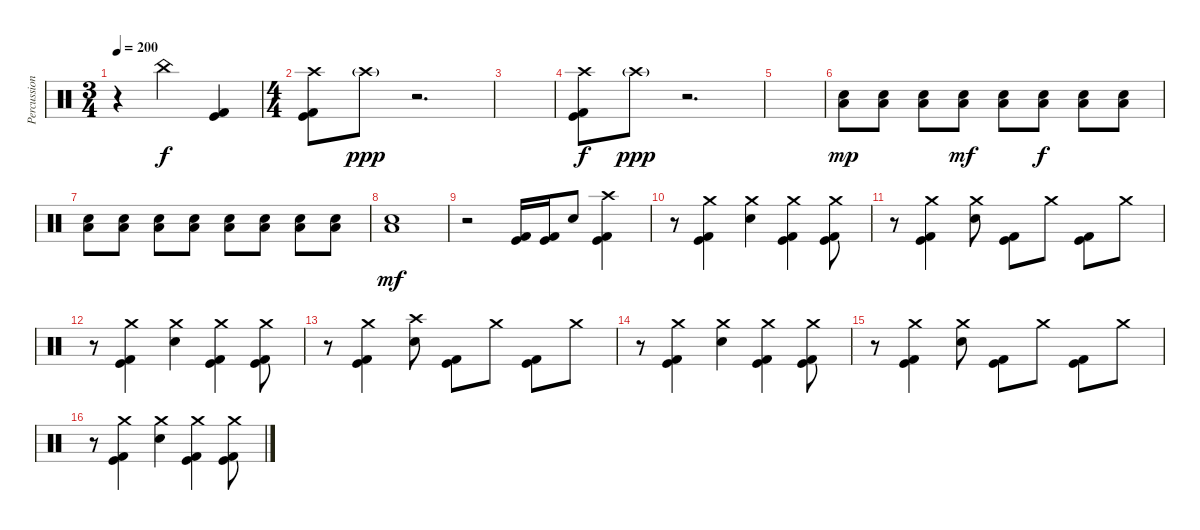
\track ("Percussions" "Percussion") {instrument percussion}
\staff {score}
\articulation defaults
\ts (3 4)
\tempo 200
\clef neutral
\ks c
r.4{dy f} "China (hit)".4 ("Kick (hit)" "Kick (hit) 2").4 |
\ts (4 4)
("Crash high (hit)" "Kick (hit)" "Kick (hit) 2").8 "Crash high (hit)"{g}.8{dy ppp} r.2{d} |
|
("Crash high (hit)" "Kick (hit)" "Kick (hit) 2").8{dy f} "Crash high (hit)"{g}.8{dy ppp} r.2{d} |
|
("Low Tom (hit)" "Electric Snare (hit)").8{dy mp} ("Low Tom (hit)" "Electric Snare (hit)").8 ("Low Tom (hit)" "Electric Snare (hit)").8 ("Low Tom (hit)" "Electric Snare (hit)").8{dy mf} ("Low Tom (hit)" "Electric Snare (hit)").8 ("Low Tom (hit)" "Electric Snare (hit)").8{dy f} ("Low Tom (hit)" "Electric Snare (hit)").8 ("Low Tom (hit)" "Electric Snare (hit)").8 |
("Low Tom (hit)" "Electric Snare (hit)").8 ("Low Tom (hit)" "Electric Snare (hit)").8 ("Low Tom (hit)" "Electric Snare (hit)").8 ("Low Tom (hit)" "Electric Snare (hit)").8 ("Low Tom (hit)" "Electric Snare (hit)").8 ("Low Tom (hit)" "Electric Snare (hit)").8 ("Low Tom (hit)" "Electric Snare (hit)").8 ("Low Tom (hit)" "Electric Snare (hit)").8 |
("Low Tom (hit)" "Electric Snare (hit)").1{dy mf} |
r.2 ("Kick (hit)" "Kick (hit) 2").16 ("Kick (hit)" "Kick (hit) 2").16 "Electric Snare (hit)".8 ("Crash high (hit)" "Kick (hit)" "Kick (hit) 2").4 |
r.8 ("Crash medium (hit)" "Kick (hit)" "Kick (hit) 2").4 ("Crash medium (hit)" "Electric Snare (hit)").4 ("Crash medium (hit)" "Kick (hit)" "Kick (hit) 2").4 ("Crash medium (hit)" "Kick (hit)" "Kick (hit) 2").8 |
r.8 ("Crash medium (hit)" "Kick (hit)" "Kick (hit) 2").4 ("Crash medium (hit)" "Electric Snare (hit)").8 ("Kick (hit)" "Kick (hit) 2").8 "Crash medium (hit)".8 ("Kick (hit)" "Kick (hit) 2").8 "Crash medium (hit)".8 |
r.8 ("Crash medium (hit)" "Kick (hit)" "Kick (hit) 2").4 ("Crash medium (hit)" "Electric Snare (hit)").4 ("Crash medium (hit)" "Kick (hit)" "Kick (hit) 2").4 ("Crash medium (hit)" "Kick (hit)" "Kick (hit) 2").8 |
r.8 ("Crash medium (hit)" "Kick (hit)" "Kick (hit) 2").4 ("Crash high (hit)" "Electric Snare (hit)").8 ("Kick (hit)" "Kick (hit) 2").8 "Crash medium (hit)".8 ("Kick (hit)" "Kick (hit) 2").8 "Crash medium (hit)".8 |
r.8 ("Crash medium (hit)" "Kick (hit)" "Kick (hit) 2").4 ("Crash medium (hit)" "Electric Snare (hit)").4 ("Crash medium (hit)" "Kick (hit)" "Kick (hit) 2").4 ("Crash medium (hit)" "Kick (hit)" "Kick (hit) 2").8 |
r.8 ("Crash medium (hit)" "Kick (hit)" "Kick (hit) 2").4 ("Crash medium (hit)" "Electric Snare (hit)").8 ("Kick (hit)" "Kick (hit) 2").8 "Crash medium (hit)".8 ("Kick (hit)" "Kick (hit) 2").8 "Crash medium (hit)".8 |
r.8 ("Crash medium (hit)" "Kick (hit)" "Kick (hit) 2").4 ("Crash medium (hit)" "Electric Snare (hit)").4 ("Crash medium (hit)" "Kick (hit)" "Kick (hit) 2").4 ("Crash medium (hit)" "Kick (hit)" "Kick (hit) 2").8
